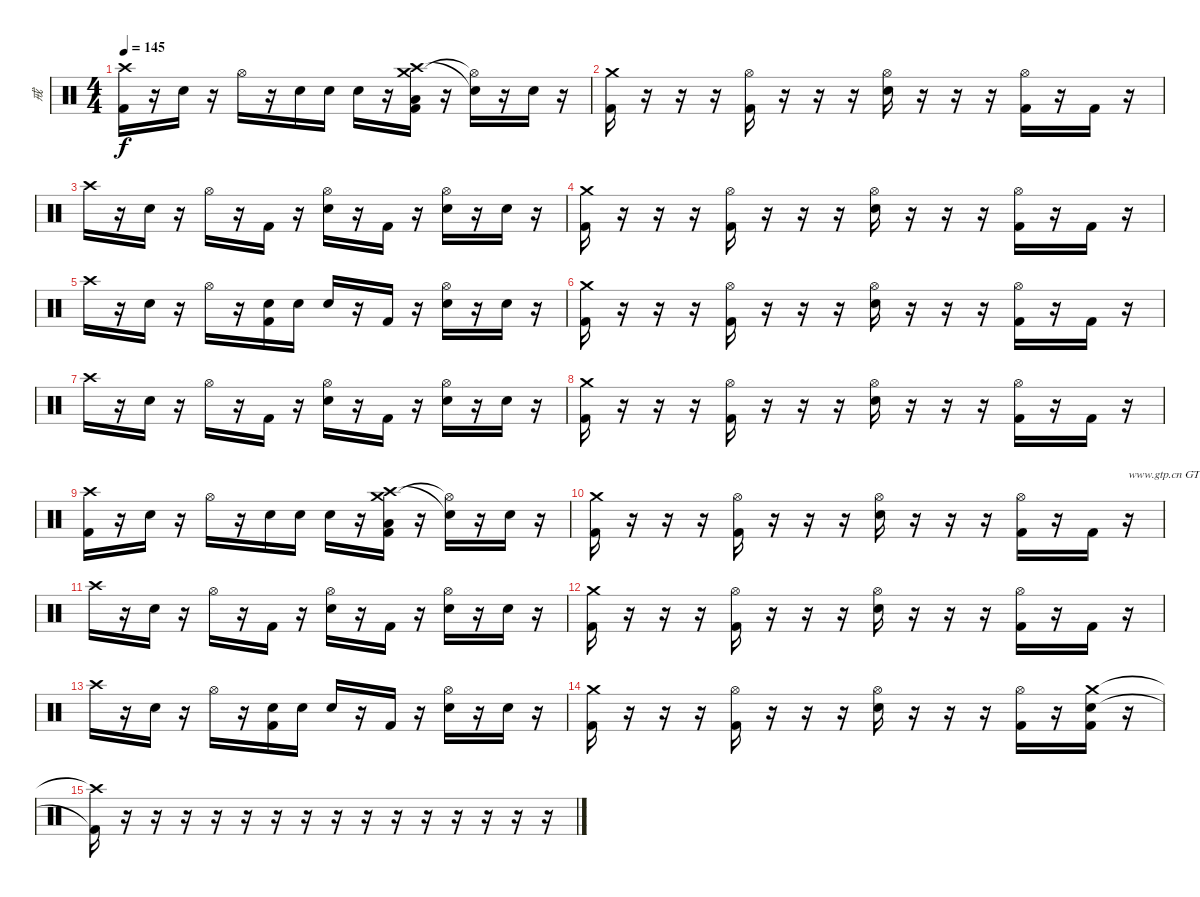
\track ("戒" "戒") {instrument percussion}
\staff {score}
\articulation defaults
\ts (4 4)
\tempo 145
\clef neutral
\ks c
("Crash high (hit)" "Kick (hit) 2").16{dy f} r.16 "Electric Snare (hit)".16 r.16 "Hi-Hat (open)".16 r.16 "Electric Snare (hit)".16 "Electric Snare (hit)".16 "Electric Snare (hit)".16 r.16 ("Crash medium (hit)" "Crash high (hit)" "Low Tom (hit)" "Kick (hit) 2").16 r.16 ("Hi-Hat (open)"{t} "Electric Snare (hit)"{t}).16 r.16 "Electric Snare (hit)".16 r.16 |
("Crash medium (hit)" "Kick (hit) 2").16 r.16 r.16 r.16 ("Hi-Hat (open)" "Kick (hit) 2").16 r.16 r.16 r.16 ("Hi-Hat (open)" "Electric Snare (hit)").16 r.16 r.16 r.16 ("Hi-Hat (open)" "Kick (hit) 2").16 r.16 "Kick (hit) 2".16 r.16 |
"Crash high (hit)".16 r.16 "Electric Snare (hit)".16 r.16 "Hi-Hat (open)".16 r.16 "Kick (hit) 2".16 r.16 ("Hi-Hat (open)" "Electric Snare (hit)").16 r.16 "Kick (hit) 2".16 r.16 ("Hi-Hat (open)" "Electric Snare (hit)").16 r.16 "Electric Snare (hit)".16 r.16 |
("Crash medium (hit)" "Kick (hit) 2").16 r.16 r.16 r.16 ("Hi-Hat (open)" "Kick (hit) 2").16 r.16 r.16 r.16 ("Hi-Hat (open)" "Electric Snare (hit)").16 r.16 r.16 r.16 ("Hi-Hat (open)" "Kick (hit) 2").16 r.16 "Kick (hit) 2".16 r.16 |
"Crash high (hit)".16 r.16 "Electric Snare (hit)".16 r.16 "Hi-Hat (open)".16 r.16 ("Electric Snare (hit)" "Kick (hit) 2").16 "Electric Snare (hit)".16 "Electric Snare (hit)".16 r.16 "Kick (hit) 2".16 r.16 ("Hi-Hat (open)" "Electric Snare (hit)").16 r.16 "Electric Snare (hit)".16 r.16 |
("Crash medium (hit)" "Kick (hit) 2").16 r.16 r.16 r.16 ("Hi-Hat (open)" "Kick (hit) 2").16 r.16 r.16 r.16 ("Hi-Hat (open)" "Electric Snare (hit)").16 r.16 r.16 r.16 ("Hi-Hat (open)" "Kick (hit) 2").16 r.16 "Kick (hit) 2".16 r.16 |
"Crash high (hit)".16 r.16 "Electric Snare (hit)".16 r.16 "Hi-Hat (open)".16 r.16 "Kick (hit) 2".16 r.16 ("Hi-Hat (open)" "Electric Snare (hit)").16 r.16 "Kick (hit) 2".16 r.16 ("Hi-Hat (open)" "Electric Snare (hit)").16 r.16 "Electric Snare (hit)".16 r.16 |
("Crash medium (hit)" "Kick (hit) 2").16 r.16 r.16 r.16 ("Hi-Hat (open)" "Kick (hit) 2").16 r.16 r.16 r.16 ("Hi-Hat (open)" "Electric Snare (hit)").16 r.16 r.16 r.16 ("Hi-Hat (open)" "Kick (hit) 2").16 r.16 "Kick (hit) 2".16 r.16 |
("Crash high (hit)" "Kick (hit) 2").16 r.16 "Electric Snare (hit)".16 r.16 "Hi-Hat (open)".16 r.16 "Electric Snare (hit)".16 "Electric Snare (hit)".16 "Electric Snare (hit)".16 r.16 ("Crash medium (hit)" "Crash high (hit)" "Low Tom (hit)" "Kick (hit) 2").16 r.16 ("Hi-Hat (open)"{t} "Electric Snare (hit)"{t}).16 r.16 "Electric Snare (hit)".16 r.16 |
("Crash medium (hit)" "Kick (hit) 2").16 r.16 r.16 r.16 ("Hi-Hat (open)" "Kick (hit) 2").16 r.16 r.16 r.16 ("Hi-Hat (open)" "Electric Snare (hit)").16 r.16 r.16 r.16 ("Hi-Hat (open)" "Kick (hit) 2").16 r.16 "Kick (hit) 2".16 r.16{txt "www.gtp.cn GTP中文网为您提供优秀的谱子"} |
"Crash high (hit)".16 r.16 "Electric Snare (hit)".16 r.16 "Hi-Hat (open)".16 r.16 "Kick (hit) 2".16 r.16 ("Hi-Hat (open)" "Electric Snare (hit)").16 r.16 "Kick (hit) 2".16 r.16 ("Hi-Hat (open)" "Electric Snare (hit)").16 r.16 "Electric Snare (hit)".16 r.16 |
("Crash medium (hit)" "Kick (hit) 2").16 r.16 r.16 r.16 ("Hi-Hat (open)" "Kick (hit) 2").16 r.16 r.16 r.16 ("Hi-Hat (open)" "Electric Snare (hit)").16 r.16 r.16 r.16 ("Hi-Hat (open)" "Kick (hit) 2").16 r.16 "Kick (hit) 2".16 r.16 |
"Crash high (hit)".16 r.16 "Electric Snare (hit)".16 r.16 "Hi-Hat (open)".16 r.16 ("Electric Snare (hit)" "Kick (hit) 2").16 "Electric Snare (hit)".16 "Electric Snare (hit)".16 r.16 "Kick (hit) 2".16 r.16 ("Hi-Hat (open)" "Electric Snare (hit)").16 r.16 "Electric Snare (hit)".16 r.16 |
("Crash medium (hit)" "Kick (hit) 2").16 r.16 r.16 r.16 ("Hi-Hat (open)" "Kick (hit) 2").16 r.16 r.16 r.16 ("Hi-Hat (open)" "Electric Snare (hit)").16 r.16 r.16 r.16 ("Hi-Hat (open)" "Kick (hit) 2").16 r.16 ("Crash medium (hit)" "Electric Snare (hit)" "Kick (hit) 2").16 r.16 |
("Crash high (hit)"{t} "Kick (hit) 2"{t}).16 r.16 r.16 r.16 r.16 r.16 r.16 r.16 r.16 r.16 r.16 r.16 r.16 r.16 r.16 r.16
